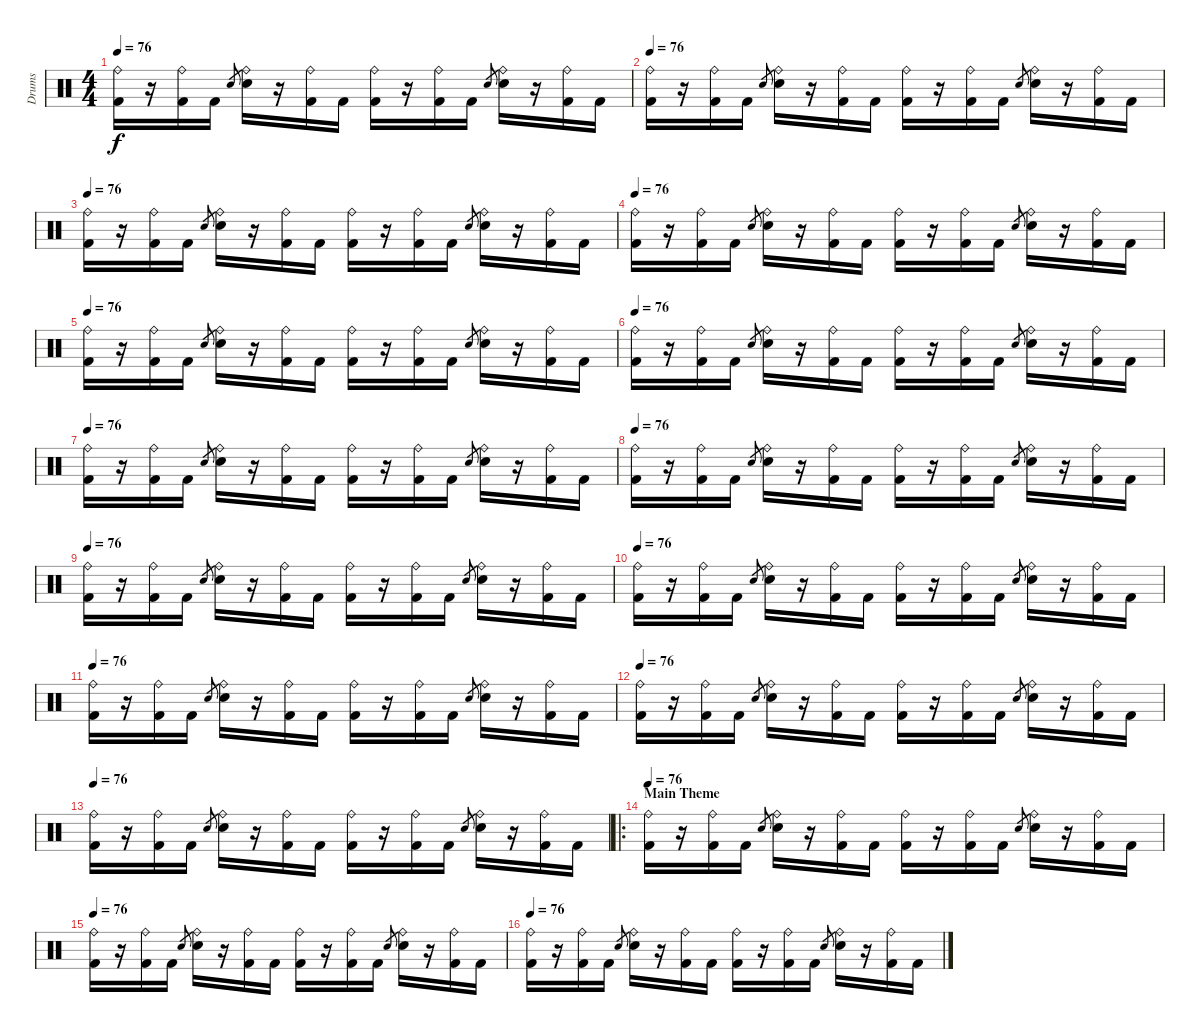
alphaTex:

\track ("Drums" "Drums") {instrument percussion}
\staff {score}
\articulation defaults
\ts (4 4)
\tempo 76
\clef neutral
\ks c
("Ride (bell)" "Kick (hit) 2").16{dy f} r.16 ("Ride (bell)" "Kick (hit) 2").16 "Kick (hit) 2".16 "Electric Snare (hit)".8{gr} ("Ride (bell)" "Electric Snare (hit)").16 r.16 ("Ride (bell)" "Kick (hit) 2").16 "Kick (hit) 2".16 ("Ride (bell)" "Kick (hit) 2").16 r.16 ("Ride (bell)" "Kick (hit) 2").16 "Kick (hit) 2".16 "Electric Snare (hit)".8{gr} ("Ride (bell)" "Electric Snare (hit)").16 r.16 ("Ride (bell)" "Kick (hit) 2").16 "Kick (hit) 2".16 |
\tempo 76
("Ride (bell)" "Kick (hit) 2").16 r.16 ("Ride (bell)" "Kick (hit) 2").16 "Kick (hit) 2".16 "Electric Snare (hit)".8{gr} ("Ride (bell)" "Electric Snare (hit)").16 r.16 ("Ride (bell)" "Kick (hit) 2").16 "Kick (hit) 2".16 ("Ride (bell)" "Kick (hit) 2").16 r.16 ("Ride (bell)" "Kick (hit) 2").16 "Kick (hit) 2".16 "Electric Snare (hit)".8{gr} ("Ride (bell)" "Electric Snare (hit)").16 r.16 ("Ride (bell)" "Kick (hit) 2").16 "Kick (hit) 2".16 |
\tempo 76
("Ride (bell)" "Kick (hit) 2").16 r.16 ("Ride (bell)" "Kick (hit) 2").16 "Kick (hit) 2".16 "Electric Snare (hit)".8{gr} ("Ride (bell)" "Electric Snare (hit)").16 r.16 ("Ride (bell)" "Kick (hit) 2").16 "Kick (hit) 2".16 ("Ride (bell)" "Kick (hit) 2").16 r.16 ("Ride (bell)" "Kick (hit) 2").16 "Kick (hit) 2".16 "Electric Snare (hit)".8{gr} ("Ride (bell)" "Electric Snare (hit)").16 r.16 ("Ride (bell)" "Kick (hit) 2").16 "Kick (hit) 2".16 |
\tempo 76
("Ride (bell)" "Kick (hit) 2").16 r.16 ("Ride (bell)" "Kick (hit) 2").16 "Kick (hit) 2".16 "Electric Snare (hit)".8{gr} ("Ride (bell)" "Electric Snare (hit)").16 r.16 ("Ride (bell)" "Kick (hit) 2").16 "Kick (hit) 2".16 ("Ride (bell)" "Kick (hit) 2").16 r.16 ("Ride (bell)" "Kick (hit) 2").16 "Kick (hit) 2".16 "Electric Snare (hit)".8{gr} ("Ride (bell)" "Electric Snare (hit)").16 r.16 ("Ride (bell)" "Kick (hit) 2").16 "Kick (hit) 2".16 |
\tempo 76
("Ride (bell)" "Kick (hit) 2").16 r.16 ("Ride (bell)" "Kick (hit) 2").16 "Kick (hit) 2".16 "Electric Snare (hit)".8{gr} ("Ride (bell)" "Electric Snare (hit)").16 r.16 ("Ride (bell)" "Kick (hit) 2").16 "Kick (hit) 2".16 ("Ride (bell)" "Kick (hit) 2").16 r.16 ("Ride (bell)" "Kick (hit) 2").16 "Kick (hit) 2".16 "Electric Snare (hit)".8{gr} ("Ride (bell)" "Electric Snare (hit)").16 r.16 ("Ride (bell)" "Kick (hit) 2").16 "Kick (hit) 2".16 |
\tempo 76
("Ride (bell)" "Kick (hit) 2").16 r.16 ("Ride (bell)" "Kick (hit) 2").16 "Kick (hit) 2".16 "Electric Snare (hit)".8{gr} ("Ride (bell)" "Electric Snare (hit)").16 r.16 ("Ride (bell)" "Kick (hit) 2").16 "Kick (hit) 2".16 ("Ride (bell)" "Kick (hit) 2").16 r.16 ("Ride (bell)" "Kick (hit) 2").16 "Kick (hit) 2".16 "Electric Snare (hit)".8{gr} ("Ride (bell)" "Electric Snare (hit)").16 r.16 ("Ride (bell)" "Kick (hit) 2").16 "Kick (hit) 2".16 |
\tempo 76
("Ride (bell)" "Kick (hit) 2").16 r.16 ("Ride (bell)" "Kick (hit) 2").16 "Kick (hit) 2".16 "Electric Snare (hit)".8{gr} ("Ride (bell)" "Electric Snare (hit)").16 r.16 ("Ride (bell)" "Kick (hit) 2").16 "Kick (hit) 2".16 ("Ride (bell)" "Kick (hit) 2").16 r.16 ("Ride (bell)" "Kick (hit) 2").16 "Kick (hit) 2".16 "Electric Snare (hit)".8{gr} ("Ride (bell)" "Electric Snare (hit)").16 r.16 ("Ride (bell)" "Kick (hit) 2").16 "Kick (hit) 2".16 |
\tempo 76
("Ride (bell)" "Kick (hit) 2").16 r.16 ("Ride (bell)" "Kick (hit) 2").16 "Kick (hit) 2".16 "Electric Snare (hit)".8{gr} ("Ride (bell)" "Electric Snare (hit)").16 r.16 ("Ride (bell)" "Kick (hit) 2").16 "Kick (hit) 2".16 ("Ride (bell)" "Kick (hit) 2").16 r.16 ("Ride (bell)" "Kick (hit) 2").16 "Kick (hit) 2".16 "Electric Snare (hit)".8{gr} ("Ride (bell)" "Electric Snare (hit)").16 r.16 ("Ride (bell)" "Kick (hit) 2").16 "Kick (hit) 2".16 |
\tempo 76
("Ride (bell)" "Kick (hit) 2").16 r.16 ("Ride (bell)" "Kick (hit) 2").16 "Kick (hit) 2".16 "Electric Snare (hit)".8{gr} ("Ride (bell)" "Electric Snare (hit)").16 r.16 ("Ride (bell)" "Kick (hit) 2").16 "Kick (hit) 2".16 ("Ride (bell)" "Kick (hit) 2").16 r.16 ("Ride (bell)" "Kick (hit) 2").16 "Kick (hit) 2".16 "Electric Snare (hit)".8{gr} ("Ride (bell)" "Electric Snare (hit)").16 r.16 ("Ride (bell)" "Kick (hit) 2").16 "Kick (hit) 2".16 |
\tempo 76
("Ride (bell)" "Kick (hit) 2").16 r.16 ("Ride (bell)" "Kick (hit) 2").16 "Kick (hit) 2".16 "Electric Snare (hit)".8{gr} ("Ride (bell)" "Electric Snare (hit)").16 r.16 ("Ride (bell)" "Kick (hit) 2").16 "Kick (hit) 2".16 ("Ride (bell)" "Kick (hit) 2").16 r.16 ("Ride (bell)" "Kick (hit) 2").16 "Kick (hit) 2".16 "Electric Snare (hit)".8{gr} ("Ride (bell)" "Electric Snare (hit)").16 r.16 ("Ride (bell)" "Kick (hit) 2").16 "Kick (hit) 2".16 |
\tempo 76
("Ride (bell)" "Kick (hit) 2").16 r.16 ("Ride (bell)" "Kick (hit) 2").16 "Kick (hit) 2".16 "Electric Snare (hit)".8{gr} ("Ride (bell)" "Electric Snare (hit)").16 r.16 ("Ride (bell)" "Kick (hit) 2").16 "Kick (hit) 2".16 ("Ride (bell)" "Kick (hit) 2").16 r.16 ("Ride (bell)" "Kick (hit) 2").16 "Kick (hit) 2".16 "Electric Snare (hit)".8{gr} ("Ride (bell)" "Electric Snare (hit)").16 r.16 ("Ride (bell)" "Kick (hit) 2").16 "Kick (hit) 2".16 |
\tempo 76
("Ride (bell)" "Kick (hit) 2").16 r.16 ("Ride (bell)" "Kick (hit) 2").16 "Kick (hit) 2".16 "Electric Snare (hit)".8{gr} ("Ride (bell)" "Electric Snare (hit)").16 r.16 ("Ride (bell)" "Kick (hit) 2").16 "Kick (hit) 2".16 ("Ride (bell)" "Kick (hit) 2").16 r.16 ("Ride (bell)" "Kick (hit) 2").16 "Kick (hit) 2".16 "Electric Snare (hit)".8{gr} ("Ride (bell)" "Electric Snare (hit)").16 r.16 ("Ride (bell)" "Kick (hit) 2").16 "Kick (hit) 2".16 |
\tempo 76
("Ride (bell)" "Kick (hit) 2").16 r.16 ("Ride (bell)" "Kick (hit) 2").16 "Kick (hit) 2".16 "Electric Snare (hit)".8{gr} ("Ride (bell)" "Electric Snare (hit)").16 r.16 ("Ride (bell)" "Kick (hit) 2").16 "Kick (hit) 2".16 ("Ride (bell)" "Kick (hit) 2").16 r.16 ("Ride (bell)" "Kick (hit) 2").16 "Kick (hit) 2".16 "Electric Snare (hit)".8{gr} ("Ride (bell)" "Electric Snare (hit)").16 r.16 ("Ride (bell)" "Kick (hit) 2").16 "Kick (hit) 2".16 |
\ro
\section ("" "Main Theme")
\tempo 76
("Ride (bell)" "Kick (hit) 2").16 r.16 ("Ride (bell)" "Kick (hit) 2").16 "Kick (hit) 2".16 "Electric Snare (hit)".8{gr} ("Ride (bell)" "Electric Snare (hit)").16 r.16 ("Ride (bell)" "Kick (hit) 2").16 "Kick (hit) 2".16 ("Ride (bell)" "Kick (hit) 2").16 r.16 ("Ride (bell)" "Kick (hit) 2").16 "Kick (hit) 2".16 "Electric Snare (hit)".8{gr} ("Ride (bell)" "Electric Snare (hit)").16 r.16 ("Ride (bell)" "Kick (hit) 2").16 "Kick (hit) 2".16 |
\tempo 76
("Ride (bell)" "Kick (hit) 2").16 r.16 ("Ride (bell)" "Kick (hit) 2").16 "Kick (hit) 2".16 "Electric Snare (hit)".8{gr} ("Ride (bell)" "Electric Snare (hit)").16 r.16 ("Ride (bell)" "Kick (hit) 2").16 "Kick (hit) 2".16 ("Ride (bell)" "Kick (hit) 2").16 r.16 ("Ride (bell)" "Kick (hit) 2").16 "Kick (hit) 2".16 "Electric Snare (hit)".8{gr} ("Ride (bell)" "Electric Snare (hit)").16 r.16 ("Ride (bell)" "Kick (hit) 2").16 "Kick (hit) 2".16 |
\tempo 76
("Ride (bell)" "Kick (hit) 2").16 r.16 ("Ride (bell)" "Kick (hit) 2").16 "Kick (hit) 2".16 "Electric Snare (hit)".8{gr} ("Ride (bell)" "Electric Snare (hit)").16 r.16 ("Ride (bell)" "Kick (hit) 2").16 "Kick (hit) 2".16 ("Ride (bell)" "Kick (hit) 2").16 r.16 ("Ride (bell)" "Kick (hit) 2").16 "Kick (hit) 2".16 "Electric Snare (hit)".8{gr} ("Ride (bell)" "Electric Snare (hit)").16 r.16 ("Ride (bell)" "Kick (hit) 2").16 "Kick (hit) 2".16
